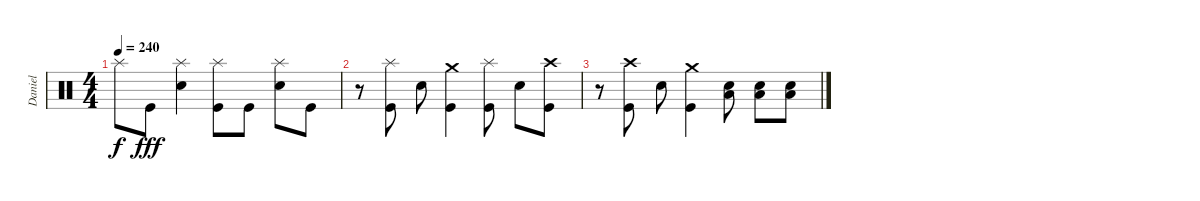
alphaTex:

\track ("Daniel" "Daniel") {instrument percussion}
\staff {score}
\articulation defaults
\ts (4 4)
\tempo 240
\clef neutral
\ks c "Splash (hit)".8{dy f} "Kick (hit)".8{dy fff}
("Electric Snare (hit)" "Splash (hit)").4 ("Kick (hit)" "Splash (hit)").8 "Kick (hit)".8 ("Electric Snare (hit)" "Splash (hit)").8 "Kick (hit)".8 |
r.8 ("Kick (hit)" "Splash (hit)").8 "Electric Snare (hit)".8 ("Kick (hit)" "Crash medium (hit)").4 ("Kick (hit)" "Splash (hit)").8 "Electric Snare (hit)".8 ("Kick (hit)" "Crash high (hit)").8 |
r.8 ("Kick (hit)" "Crash high (hit)").8 "Electric Snare (hit)".8 ("Kick (hit)" "Crash medium (hit)").4 ("Electric Snare (hit)" "Low Floor Tom (hit)").8 ("Electric Snare (hit)" "Low Floor Tom (hit)").8 ("Electric Snare (hit)" "Low Floor Tom (hit)").8
